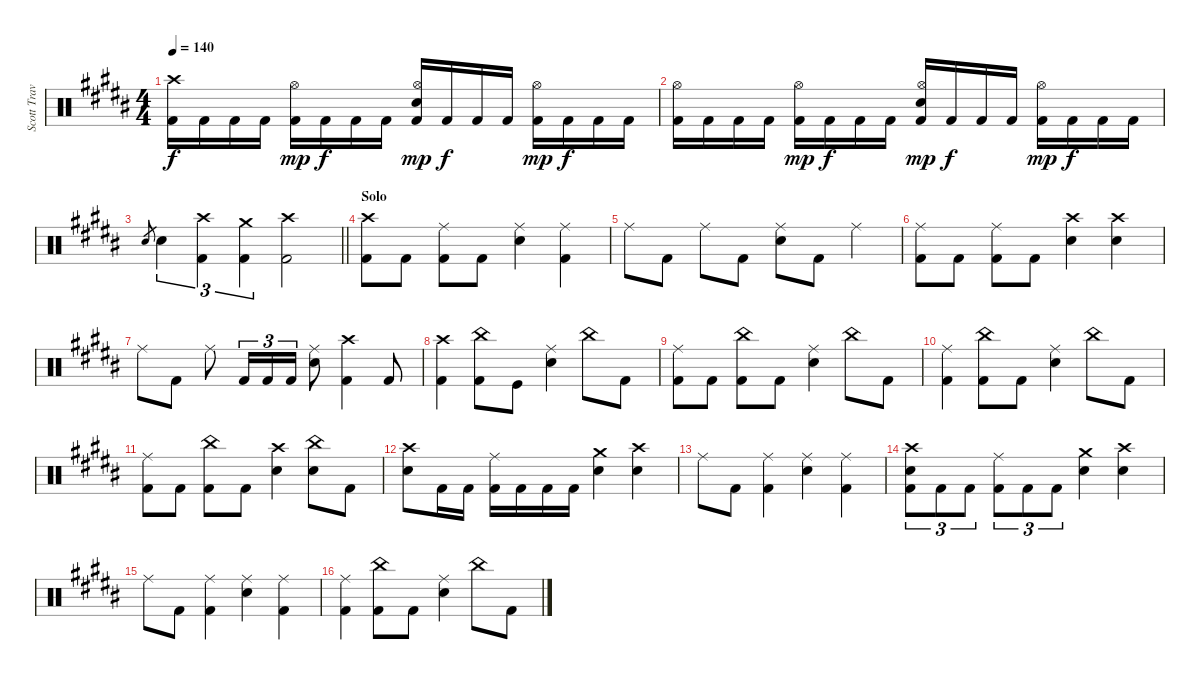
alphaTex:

\track ("Scott Travis" "Scott Trav") {instrument percussion}
\staff {score}
\articulation defaults
\ts (4 4)
\tempo 140
\clef neutral
\ks g#minor
("Crash high (hit)" "Kick (hit) 2").16{dy f} "Kick (hit) 2".16 "Kick (hit) 2".16 "Kick (hit) 2".16 ("Hi-Hat (open)" "Kick (hit) 2").16{dy mp} "Kick (hit) 2".16{dy f} "Kick (hit) 2".16 "Kick (hit) 2".16 ("Hi-Hat (open)" "Electric Snare (hit)" "Kick (hit) 2").16{dy mp} "Kick (hit) 2".16{dy f} "Kick (hit) 2".16 "Kick (hit) 2".16 ("Hi-Hat (open)" "Kick (hit) 2").16{dy mp} "Kick (hit) 2".16{dy f} "Kick (hit) 2".16 "Kick (hit) 2".16 |
("Hi-Hat (open)" "Kick (hit) 2").16 "Kick (hit) 2".16 "Kick (hit) 2".16 "Kick (hit) 2".16 ("Hi-Hat (open)" "Kick (hit) 2").16{dy mp} "Kick (hit) 2".16{dy f} "Kick (hit) 2".16 "Kick (hit) 2".16 ("Hi-Hat (open)" "Electric Snare (hit)" "Kick (hit) 2").16{dy mp} "Kick (hit) 2".16{dy f} "Kick (hit) 2".16 "Kick (hit) 2".16 ("Hi-Hat (open)" "Kick (hit) 2").16{dy mp} "Kick (hit) 2".16{dy f} "Kick (hit) 2".16 "Kick (hit) 2".16 |
\barLineRight lightlight "Electric Snare (hit)".8{gr} "Electric Snare (hit)".4{tu (3 2)}
("Crash high (hit)" "Kick (hit) 2").4{tu (3 2)} ("Crash medium (hit)" "Kick (hit) 2").4{tu (3 2)} ("Crash high (hit)" "Kick (hit) 2").2 |
\section ("" "Solo")
("Crash high (hit)" "Kick (hit) 2").8 "Kick (hit) 2".8 ("Ride (middle)" "Kick (hit) 2").8 "Kick (hit) 2".8 ("Ride (middle)" "Electric Snare (hit)").4 ("Ride (middle)" "Kick (hit) 2").4 |
"Ride (middle)".8 "Kick (hit) 2".8 "Ride (middle)".8 "Kick (hit) 2".8 ("Ride (middle)" "Electric Snare (hit)").8 "Kick (hit) 2".8 "Ride (middle)".4 |
("Ride (middle)" "Kick (hit) 2").8 "Kick (hit) 2".8 ("Ride (middle)" "Kick (hit) 2").8 "Kick (hit) 2".8 ("Crash high (hit)" "Electric Snare (hit)").4 ("Crash high (hit)" "Electric Snare (hit)").4 |
"Ride (middle)".8 "Kick (hit) 2".8 "Ride (middle)".8 "Kick (hit) 2".16{tu (3 2)} "Kick (hit) 2".16{tu (3 2)} "Kick (hit) 2".16{tu (3 2)} ("Ride (middle)" "Electric Snare (hit)").8 ("Crash high (hit)" "Kick (hit) 2").4 "Kick (hit) 2".8 |
("Crash high (hit)" "Kick (hit) 2").4 ("China (hit)" "Kick (hit) 2").8 "Kick (hit)".8 ("Ride (middle)" "Electric Snare (hit)").4 "China (hit)".8 "Kick (hit) 2".8 |
("Ride (middle)" "Kick (hit) 2").8 "Kick (hit) 2".8 ("China (hit)" "Kick (hit) 2").8 "Kick (hit) 2".8 ("Ride (middle)" "Electric Snare (hit)").4 "China (hit)".8 "Kick (hit) 2".8 |
("Ride (middle)" "Kick (hit) 2").4 ("China (hit)" "Kick (hit) 2").8 "Kick (hit) 2".8 ("Ride (middle)" "Electric Snare (hit)").4 "China (hit)".8 "Kick (hit) 2".8 |
("Ride (middle)" "Kick (hit) 2").8 "Kick (hit) 2".8 ("China (hit)" "Kick (hit) 2").8 "Kick (hit) 2".8 ("Crash high (hit)" "Electric Snare (hit)").4 ("China (hit)" "Electric Snare (hit)").8 "Kick (hit) 2".8 |
("Crash high (hit)" "Electric Snare (hit)").8 "Kick (hit) 2".16 "Kick (hit) 2".16 ("Ride (middle)" "Kick (hit) 2").16 "Kick (hit) 2".16 "Kick (hit) 2".16 "Kick (hit) 2".16 ("Crash medium (hit)" "Electric Snare (hit)").4 ("Crash high (hit)" "Electric Snare (hit)").4 |
"Ride (middle)".8 "Kick (hit) 2".8 ("Ride (middle)" "Kick (hit) 2").4 ("Ride (middle)" "Electric Snare (hit)").4 ("Ride (middle)" "Kick (hit) 2").4 |
("Crash high (hit)" "Electric Snare (hit)" "Kick (hit) 2").8{tu (3 2)} "Kick (hit) 2".8{tu (3 2)} "Kick (hit) 2".8{tu (3 2)} ("Ride (middle)" "Kick (hit) 2").8{tu (3 2)} "Kick (hit) 2".8{tu (3 2)} "Kick (hit) 2".8{tu (3 2)} ("Crash medium (hit)" "Electric Snare (hit)").4 ("Crash high (hit)" "Electric Snare (hit)").4 |
"Ride (middle)".8 "Kick (hit) 2".8 ("Ride (middle)" "Kick (hit) 2").4 ("Ride (middle)" "Electric Snare (hit)").4 ("Ride (middle)" "Kick (hit) 2").4 |
("Ride (middle)" "Kick (hit) 2").4 ("China (hit)" "Kick (hit) 2").8 "Kick (hit) 2".8 ("Ride (middle)" "Electric Snare (hit)").4 "China (hit)".8 "Kick (hit) 2".8
